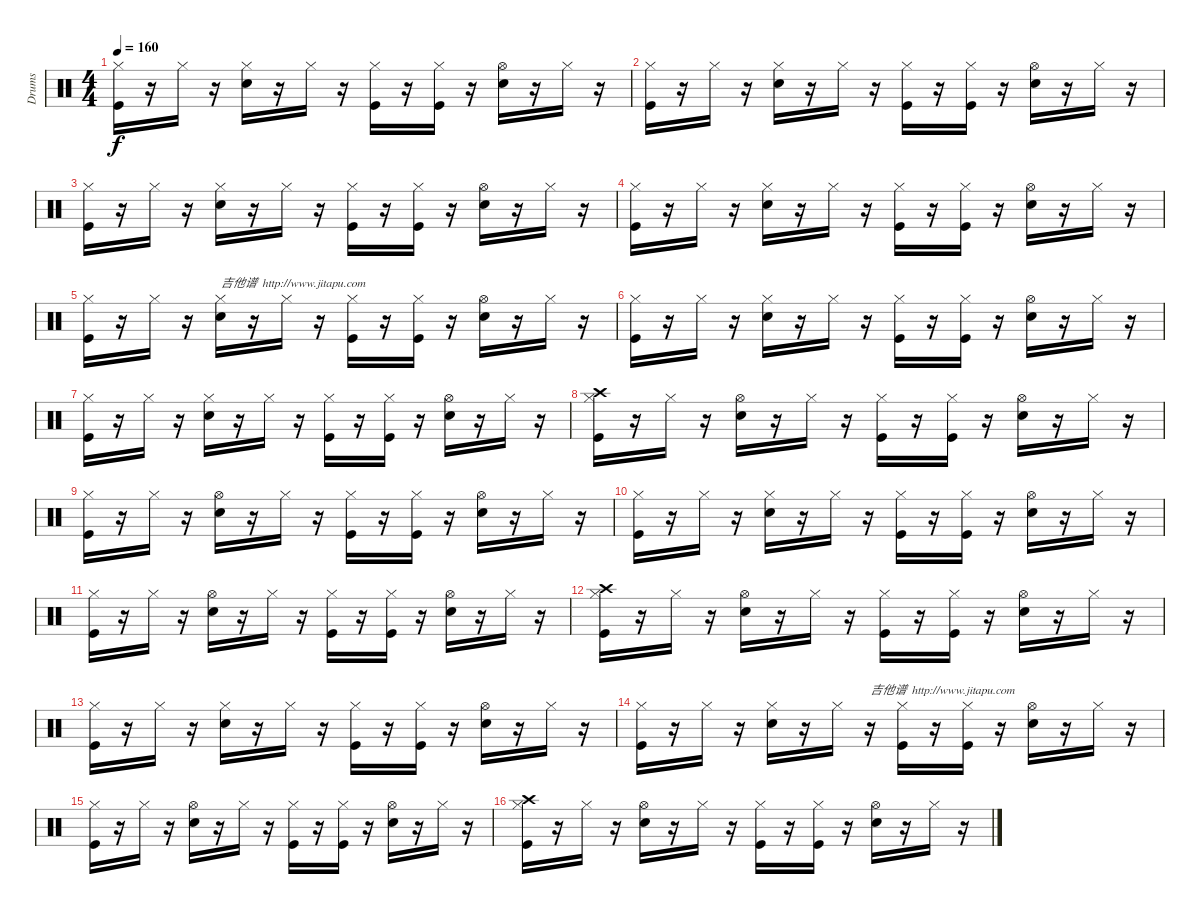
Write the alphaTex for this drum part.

\track ("Drums" "Drums") {instrument percussion}
\staff {score}
\articulation defaults
\ts (4 4)
\tempo 160
\clef neutral
\ks c
("Hi-Hat (closed)" "Kick (hit)").16{dy f} r.16 "Hi-Hat (closed)".16 r.16 ("Hi-Hat (closed)" "Snare (hit) 2").16 r.16 "Hi-Hat (closed)".16 r.16 ("Hi-Hat (closed)" "Kick (hit)").16 r.16 ("Kick (hit)" "Hi-Hat (closed)").16 r.16 ("Hi-Hat (open)" "Snare (hit) 2").16 r.16 "Hi-Hat (closed)".16 r.16 |
("Hi-Hat (closed)" "Kick (hit)").16 r.16 "Hi-Hat (closed)".16 r.16 ("Hi-Hat (closed)" "Snare (hit) 2").16 r.16 "Hi-Hat (closed)".16 r.16 ("Hi-Hat (closed)" "Kick (hit)").16 r.16 ("Kick (hit)" "Hi-Hat (closed)").16 r.16 ("Hi-Hat (open)" "Snare (hit) 2").16 r.16 "Hi-Hat (closed)".16 r.16 |
("Hi-Hat (closed)" "Kick (hit)").16 r.16 "Hi-Hat (closed)".16 r.16 ("Hi-Hat (closed)" "Snare (hit) 2").16 r.16 "Hi-Hat (closed)".16 r.16 ("Hi-Hat (closed)" "Kick (hit)").16 r.16 ("Kick (hit)" "Hi-Hat (closed)").16 r.16 ("Hi-Hat (open)" "Snare (hit) 2").16 r.16 "Hi-Hat (closed)".16 r.16 |
("Hi-Hat (closed)" "Kick (hit)").16 r.16 "Hi-Hat (closed)".16 r.16 ("Hi-Hat (closed)" "Snare (hit) 2").16 r.16 "Hi-Hat (closed)".16 r.16 ("Hi-Hat (closed)" "Kick (hit)").16 r.16 ("Kick (hit)" "Hi-Hat (closed)").16 r.16 ("Hi-Hat (open)" "Snare (hit) 2").16 r.16 "Hi-Hat (closed)".16 r.16 |
("Hi-Hat (closed)" "Kick (hit)").16 r.16 "Hi-Hat (closed)".16 r.16 ("Hi-Hat (closed)" "Snare (hit) 2").16{txt "吉他谱  http://www.jitapu.com"} r.16 "Hi-Hat (closed)".16 r.16 ("Hi-Hat (closed)" "Kick (hit)").16 r.16 ("Kick (hit)" "Hi-Hat (closed)").16 r.16 ("Hi-Hat (open)" "Snare (hit) 2").16 r.16 "Hi-Hat (closed)".16 r.16 |
("Hi-Hat (closed)" "Kick (hit)").16 r.16 "Hi-Hat (closed)".16 r.16 ("Hi-Hat (closed)" "Snare (hit) 2").16 r.16 "Hi-Hat (closed)".16 r.16 ("Hi-Hat (closed)" "Kick (hit)").16 r.16 ("Kick (hit)" "Hi-Hat (closed)").16 r.16 ("Hi-Hat (open)" "Snare (hit) 2").16 r.16 "Hi-Hat (closed)".16 r.16 |
("Hi-Hat (closed)" "Kick (hit)").16 r.16 "Hi-Hat (closed)".16 r.16 ("Hi-Hat (closed)" "Snare (hit) 2").16 r.16 "Hi-Hat (closed)".16 r.16 ("Hi-Hat (closed)" "Kick (hit)").16 r.16 ("Kick (hit)" "Hi-Hat (closed)").16 r.16 ("Hi-Hat (open)" "Snare (hit) 2").16 r.16 "Hi-Hat (closed)".16 r.16 |
("Crash high (hit)" "Hi-Hat (closed)" "Kick (hit)").16 r.16 "Hi-Hat (closed)".16 r.16 ("Hi-Hat (open)" "Snare (hit) 2").16 r.16 "Hi-Hat (closed)".16 r.16 ("Hi-Hat (closed)" "Kick (hit)").16 r.16 ("Kick (hit)" "Hi-Hat (closed)").16 r.16 ("Hi-Hat (open)" "Snare (hit) 2").16 r.16 "Hi-Hat (closed)".16 r.16 |
("Hi-Hat (closed)" "Kick (hit)").16 r.16 "Hi-Hat (closed)".16 r.16 ("Hi-Hat (open)" "Snare (hit) 2").16 r.16 "Hi-Hat (closed)".16 r.16 ("Hi-Hat (closed)" "Kick (hit)").16 r.16 ("Kick (hit)" "Hi-Hat (closed)").16 r.16 ("Hi-Hat (open)" "Snare (hit) 2").16 r.16 "Hi-Hat (closed)".16 r.16 |
("Hi-Hat (closed)" "Kick (hit)").16 r.16 "Hi-Hat (closed)".16 r.16 ("Hi-Hat (closed)" "Snare (hit) 2").16 r.16 "Hi-Hat (closed)".16 r.16 ("Hi-Hat (closed)" "Kick (hit)").16 r.16 ("Kick (hit)" "Hi-Hat (closed)").16 r.16 ("Hi-Hat (open)" "Snare (hit) 2").16 r.16 "Hi-Hat (closed)".16 r.16 |
("Hi-Hat (closed)" "Kick (hit)").16 r.16 "Hi-Hat (closed)".16 r.16 ("Hi-Hat (open)" "Snare (hit) 2").16 r.16 "Hi-Hat (closed)".16 r.16 ("Hi-Hat (closed)" "Kick (hit)").16 r.16 ("Kick (hit)" "Hi-Hat (closed)").16 r.16 ("Hi-Hat (open)" "Snare (hit) 2").16 r.16 "Hi-Hat (closed)".16 r.16 |
("Crash high (hit)" "Hi-Hat (closed)" "Kick (hit)").16 r.16 "Hi-Hat (closed)".16 r.16 ("Hi-Hat (open)" "Snare (hit) 2").16 r.16 "Hi-Hat (closed)".16 r.16 ("Hi-Hat (closed)" "Kick (hit)").16 r.16 ("Kick (hit)" "Hi-Hat (closed)").16 r.16 ("Hi-Hat (open)" "Snare (hit) 2").16 r.16 "Hi-Hat (closed)".16 r.16 |
("Hi-Hat (closed)" "Kick (hit)").16 r.16 "Hi-Hat (closed)".16 r.16 ("Hi-Hat (closed)" "Snare (hit) 2").16 r.16 "Hi-Hat (closed)".16 r.16 ("Hi-Hat (closed)" "Kick (hit)").16 r.16 ("Kick (hit)" "Hi-Hat (closed)").16 r.16 ("Hi-Hat (open)" "Snare (hit) 2").16 r.16 "Hi-Hat (closed)".16 r.16 |
("Hi-Hat (closed)" "Kick (hit)").16 r.16 "Hi-Hat (closed)".16 r.16 ("Hi-Hat (closed)" "Snare (hit) 2").16 r.16 "Hi-Hat (closed)".16 r.16{txt "吉他谱  http://www.jitapu.com"} ("Hi-Hat (closed)" "Kick (hit)").16 r.16 ("Kick (hit)" "Hi-Hat (closed)").16 r.16 ("Hi-Hat (open)" "Snare (hit) 2").16 r.16 "Hi-Hat (closed)".16 r.16 |
("Hi-Hat (closed)" "Kick (hit)").16 r.16 "Hi-Hat (closed)".16 r.16 ("Hi-Hat (open)" "Snare (hit) 2").16 r.16 "Hi-Hat (closed)".16 r.16 ("Hi-Hat (closed)" "Kick (hit)").16 r.16 ("Kick (hit)" "Hi-Hat (closed)").16 r.16 ("Hi-Hat (open)" "Snare (hit) 2").16 r.16 "Hi-Hat (closed)".16 r.16 |
("Crash high (hit)" "Hi-Hat (closed)" "Kick (hit)").16 r.16 "Hi-Hat (closed)".16 r.16 ("Hi-Hat (open)" "Snare (hit) 2").16 r.16 "Hi-Hat (closed)".16 r.16 ("Hi-Hat (closed)" "Kick (hit)").16 r.16 ("Kick (hit)" "Hi-Hat (closed)").16 r.16 ("Hi-Hat (open)" "Snare (hit) 2").16 r.16 "Hi-Hat (closed)".16 r.16
